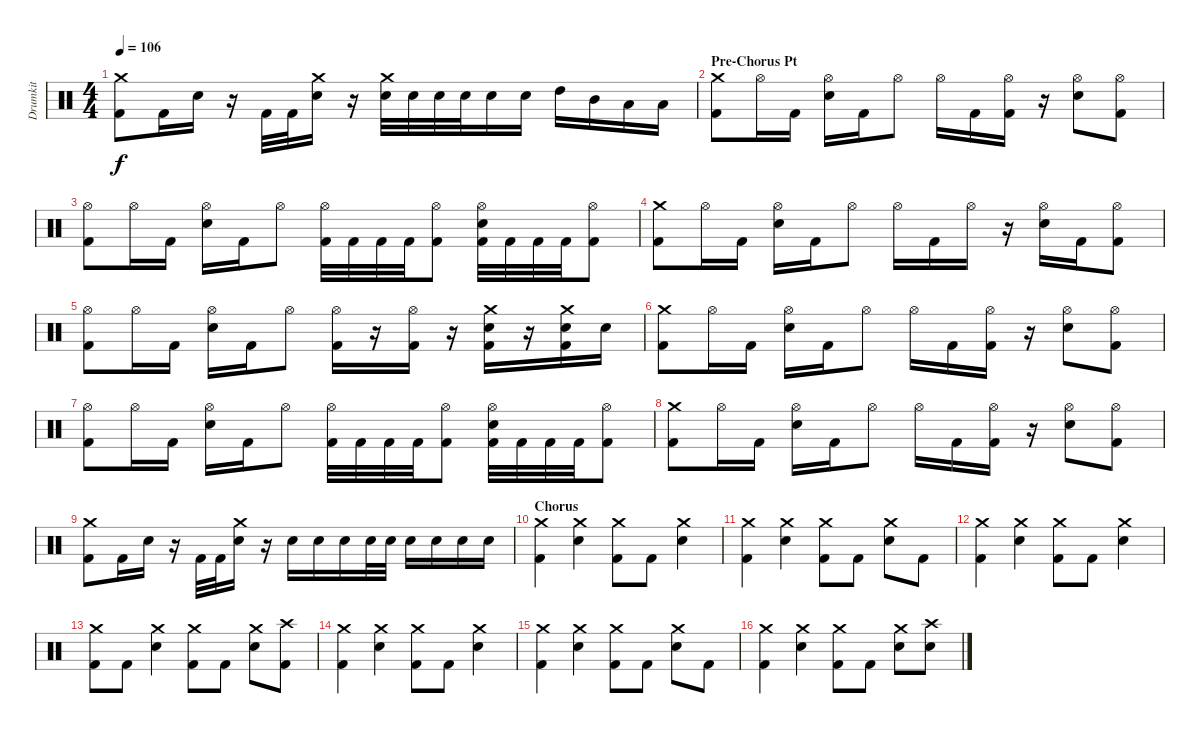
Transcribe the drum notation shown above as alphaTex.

\track ("Drumkit" "Drumkit") {instrument percussion}
\staff {score}
\articulation defaults
\ts (4 4)
\tempo 106
\clef neutral
\ks c
("Crash medium (hit)" "Kick (hit) 2").8{dy f} "Kick (hit) 2".16 "Snare (hit) 2".16 r.16 "Kick (hit) 2".32 "Kick (hit) 2".32 ("Crash medium (hit)" "Snare (hit) 2").16 r.16 ("Crash medium (hit)" "Snare (hit) 2").32 "Snare (hit) 2".32 "Snare (hit) 2".32 "Snare (hit) 2".32 "Snare (hit) 2".16 "Snare (hit) 2".16 "High Tom (hit)".16 "Mid Tom (hit)".16 "Low Tom (hit)".16 "Low Tom (hit)".16 |
\section ("" "Pre-Chorus Pt")
("Crash medium (hit)" "Kick (hit) 2").8 "Hi-Hat (open)".16 "Kick (hit) 2".16 ("Hi-Hat (open)" "Snare (hit) 2").16 "Kick (hit) 2".16 "Hi-Hat (open)".8 "Hi-Hat (open)".16 "Kick (hit) 2".16 ("Hi-Hat (open)" "Kick (hit) 2").16 r.16 ("Hi-Hat (open)" "Snare (hit) 2").8 ("Hi-Hat (open)" "Kick (hit) 2").8 |
("Hi-Hat (open)" "Kick (hit) 2").8 "Hi-Hat (open)".16 "Kick (hit) 2".16 ("Hi-Hat (open)" "Snare (hit) 2").16 "Kick (hit) 2".16 "Hi-Hat (open)".8 ("Hi-Hat (open)" "Kick (hit) 2").32 "Kick (hit) 2".32 "Kick (hit) 2".32 "Kick (hit) 2".32 ("Hi-Hat (open)" "Kick (hit) 2").8 ("Hi-Hat (open)" "Snare (hit) 2" "Kick (hit) 2").32 "Kick (hit) 2".32 "Kick (hit) 2".32 "Kick (hit) 2".32 ("Hi-Hat (open)" "Kick (hit) 2").8 |
("Crash medium (hit)" "Kick (hit) 2").8 "Hi-Hat (open)".16 "Kick (hit) 2".16 ("Hi-Hat (open)" "Snare (hit) 2").16 "Kick (hit) 2".16 "Hi-Hat (open)".8 "Hi-Hat (open)".16 "Kick (hit) 2".16 "Hi-Hat (open)".16 r.16 ("Hi-Hat (open)" "Snare (hit) 2").16 "Kick (hit) 2".16 ("Hi-Hat (open)" "Kick (hit) 2").8 |
("Hi-Hat (open)" "Kick (hit) 2").8 "Hi-Hat (open)".16 "Kick (hit) 2".16 ("Hi-Hat (open)" "Snare (hit) 2").16 "Kick (hit) 2".16 "Hi-Hat (open)".8 ("Hi-Hat (open)" "Kick (hit) 2").16 r.16 ("Hi-Hat (open)" "Kick (hit) 2").16 r.16 ("Crash medium (hit)" "Snare (hit) 2" "Kick (hit) 2").16 r.16 ("Crash medium (hit)" "Snare (hit) 2" "Kick (hit) 2").16 "Snare (hit) 2".16 |
("Crash medium (hit)" "Kick (hit) 2").8 "Hi-Hat (open)".16 "Kick (hit) 2".16 ("Hi-Hat (open)" "Snare (hit) 2").16 "Kick (hit) 2".16 "Hi-Hat (open)".8 "Hi-Hat (open)".16 "Kick (hit) 2".16 ("Hi-Hat (open)" "Kick (hit) 2").16 r.16 ("Hi-Hat (open)" "Snare (hit) 2").8 ("Hi-Hat (open)" "Kick (hit) 2").8 |
("Hi-Hat (open)" "Kick (hit) 2").8 "Hi-Hat (open)".16 "Kick (hit) 2".16 ("Hi-Hat (open)" "Snare (hit) 2").16 "Kick (hit) 2".16 "Hi-Hat (open)".8 ("Hi-Hat (open)" "Kick (hit) 2").32 "Kick (hit) 2".32 "Kick (hit) 2".32 "Kick (hit) 2".32 ("Hi-Hat (open)" "Kick (hit) 2").8 ("Hi-Hat (open)" "Snare (hit) 2" "Kick (hit) 2").32 "Kick (hit) 2".32 "Kick (hit) 2".32 "Kick (hit) 2".32 ("Hi-Hat (open)" "Kick (hit) 2").8 |
("Crash medium (hit)" "Kick (hit) 2").8 "Hi-Hat (open)".16 "Kick (hit) 2".16 ("Hi-Hat (open)" "Snare (hit) 2").16 "Kick (hit) 2".16 "Hi-Hat (open)".8 "Hi-Hat (open)".16 "Kick (hit) 2".16 ("Hi-Hat (open)" "Kick (hit) 2").16 r.16 ("Hi-Hat (open)" "Snare (hit) 2").8 ("Hi-Hat (open)" "Kick (hit) 2").8 |
("Crash medium (hit)" "Kick (hit) 2").8 "Kick (hit) 2".16 "Snare (hit) 2".16 r.16 "Kick (hit) 2".32 "Kick (hit) 2".32 ("Crash medium (hit)" "Snare (hit) 2").16 r.16 "Snare (hit) 2".16 "Snare (hit) 2".16 "Snare (hit) 2".16 "Snare (hit) 2".32 "Snare (hit) 2".32 "Snare (hit) 2".16 "Snare (hit) 2".16 "Snare (hit) 2".16 "Snare (hit) 2".16 |
\section ("" "Chorus")
("Crash medium (hit)" "Kick (hit) 2").4 ("Crash medium (hit)" "Snare (hit) 2").4 ("Crash medium (hit)" "Kick (hit) 2").8 "Kick (hit) 2".8 ("Crash medium (hit)" "Snare (hit) 2").4 |
("Crash medium (hit)" "Kick (hit) 2").4 ("Crash medium (hit)" "Snare (hit) 2").4 ("Crash medium (hit)" "Kick (hit) 2").8 "Kick (hit) 2".8 ("Crash medium (hit)" "Snare (hit) 2").8 "Kick (hit) 2".8 |
("Crash medium (hit)" "Kick (hit) 2").4 ("Crash medium (hit)" "Snare (hit) 2").4 ("Crash medium (hit)" "Kick (hit) 2").8 "Kick (hit) 2".8 ("Crash medium (hit)" "Snare (hit) 2").4 |
("Crash medium (hit)" "Kick (hit) 2").8 "Kick (hit) 2".8 ("Crash medium (hit)" "Snare (hit) 2").4 ("Crash medium (hit)" "Kick (hit) 2").8 "Kick (hit) 2".8 ("Crash medium (hit)" "Snare (hit) 2").8 ("Crash high (hit)" "Kick (hit) 2").8 |
("Crash medium (hit)" "Kick (hit) 2").4 ("Crash medium (hit)" "Snare (hit) 2").4 ("Crash medium (hit)" "Kick (hit) 2").8 "Kick (hit) 2".8 ("Crash medium (hit)" "Snare (hit) 2").4 |
("Crash medium (hit)" "Kick (hit) 2").4 ("Crash medium (hit)" "Snare (hit) 2").4 ("Crash medium (hit)" "Kick (hit) 2").8 "Kick (hit) 2".8 ("Crash medium (hit)" "Snare (hit) 2").8 "Kick (hit) 2".8 |
("Crash medium (hit)" "Kick (hit) 2").4 ("Crash medium (hit)" "Snare (hit) 2").4 ("Crash medium (hit)" "Kick (hit) 2").8 "Kick (hit) 2".8 ("Crash medium (hit)" "Snare (hit) 2").8 ("Crash high (hit)" "Snare (hit) 2").8
